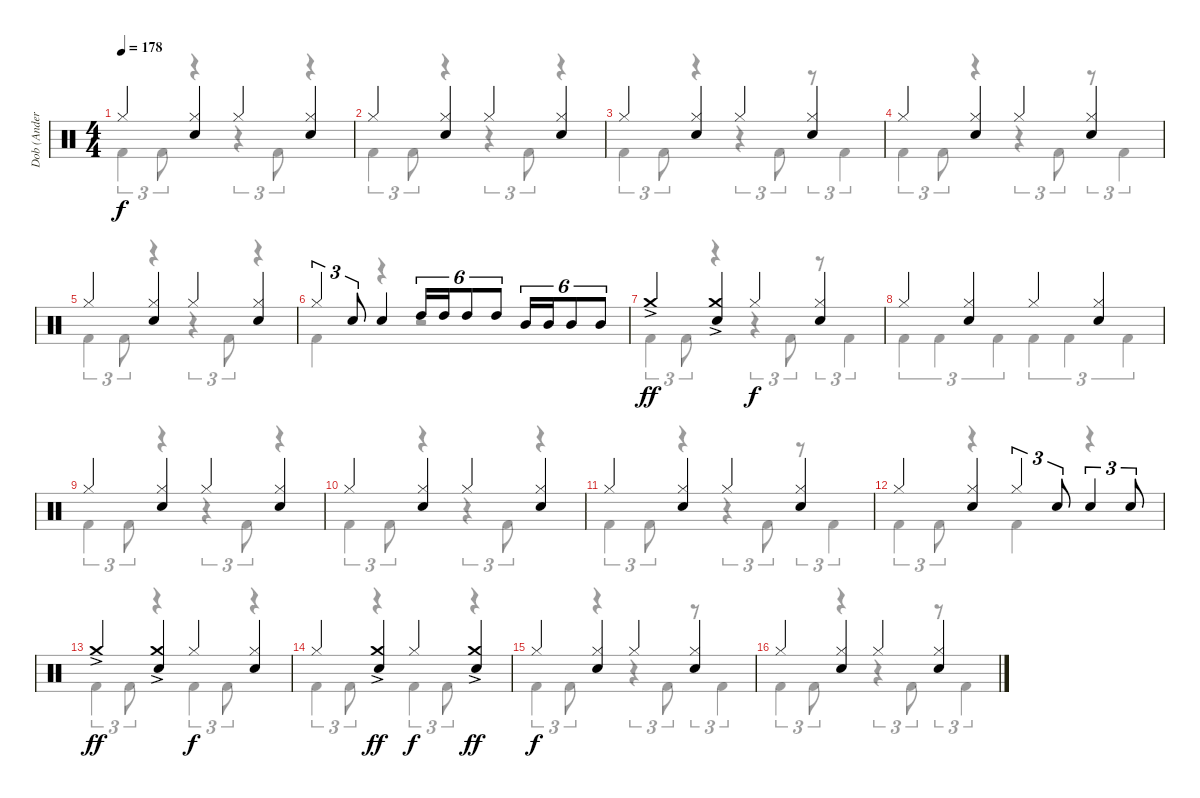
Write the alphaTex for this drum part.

\track ("Dob (Anders Johansson)" "Dob (Ander") {instrument percussion}
\staff {score}
\articulation defaults
\voice
\ts (4 4)
\tempo 178
\clef neutral
\ks c "Hi-Hat (closed)".4{dy f}
("Hi-Hat (closed)" "Electric Snare (hit)").4 "Hi-Hat (closed)".4 ("Hi-Hat (closed)" "Electric Snare (hit)").4 |
"Hi-Hat (closed)".4 ("Hi-Hat (closed)" "Electric Snare (hit)").4 "Hi-Hat (closed)".4 ("Hi-Hat (closed)" "Electric Snare (hit)").4 |
"Hi-Hat (closed)".4 ("Hi-Hat (closed)" "Electric Snare (hit)").4 "Hi-Hat (closed)".4 ("Hi-Hat (closed)" "Electric Snare (hit)").4 |
"Hi-Hat (closed)".4 ("Hi-Hat (closed)" "Electric Snare (hit)").4 "Hi-Hat (closed)".4 ("Hi-Hat (closed)" "Electric Snare (hit)").4 |
"Hi-Hat (closed)".4 ("Hi-Hat (closed)" "Electric Snare (hit)").4 "Hi-Hat (closed)".4 ("Hi-Hat (closed)" "Electric Snare (hit)").4 |
"Hi-Hat (closed)".4{tu (3 2)} "Electric Snare (hit)".8{tu (3 2)} "Electric Snare (hit)".4 "High Tom (hit)".16{tu (6 4)} "High Tom (hit)".16{tu (6 4)} "High Tom (hit)".8{tu (6 4)} "High Tom (hit)".8{tu (6 4)} "Mid Tom (hit)".16{tu (6 4)} "Mid Tom (hit)".16{tu (6 4)} "Mid Tom (hit)".8{tu (6 4)} "Mid Tom (hit)".8{tu (6 4)} |
"Crash medium (hit)"{ac}.4{dy ff} ("Crash medium (hit)"{ac} "Electric Snare (hit)").4 "Hi-Hat (closed)".4{dy f} ("Hi-Hat (closed)" "Electric Snare (hit)").4 |
"Hi-Hat (closed)".4 ("Hi-Hat (closed)" "Electric Snare (hit)").4 "Hi-Hat (closed)".4 ("Hi-Hat (closed)" "Electric Snare (hit)").4 |
"Hi-Hat (closed)".4 ("Hi-Hat (closed)" "Electric Snare (hit)").4 "Hi-Hat (closed)".4 ("Hi-Hat (closed)" "Electric Snare (hit)").4 |
"Hi-Hat (closed)".4 ("Hi-Hat (closed)" "Electric Snare (hit)").4 "Hi-Hat (closed)".4 ("Hi-Hat (closed)" "Electric Snare (hit)").4 |
"Hi-Hat (closed)".4 ("Hi-Hat (closed)" "Electric Snare (hit)").4 "Hi-Hat (closed)".4 ("Hi-Hat (closed)" "Electric Snare (hit)").4 |
"Hi-Hat (closed)".4 ("Hi-Hat (closed)" "Electric Snare (hit)").4 "Hi-Hat (closed)".4{tu (3 2)} "Electric Snare (hit)".8{tu (3 2)} "Electric Snare (hit)".4{tu (3 2)} "Electric Snare (hit)".8{tu (3 2)} |
"Crash medium (hit)"{ac}.4{dy ff} ("Crash medium (hit)"{ac} "Electric Snare (hit)").4 "Hi-Hat (closed)".4{dy f} ("Hi-Hat (closed)" "Electric Snare (hit)").4 |
"Hi-Hat (closed)".4 ("Crash medium (hit)"{ac} "Electric Snare (hit)").4{dy ff} "Hi-Hat (closed)".4{dy f} ("Crash medium (hit)"{ac} "Electric Snare (hit)").4{dy ff} |
"Hi-Hat (closed)".4{dy f} ("Hi-Hat (closed)" "Electric Snare (hit)").4 "Hi-Hat (closed)".4 ("Hi-Hat (closed)" "Electric Snare (hit)").4 |
"Hi-Hat (closed)".4 ("Hi-Hat (closed)" "Electric Snare (hit)").4 "Hi-Hat (closed)".4 ("Hi-Hat (closed)" "Electric Snare (hit)").4
\voice
\clef neutral
\ottava regular
\simile none
\ks c "Kick (hit) 2".4{tu (3 2) dy f} "Kick (hit) 2".8{tu (3 2)}
r.4 r.4{tu (3 2)} "Kick (hit) 2".8{tu (3 2)} r.4 |
"Kick (hit) 2".4{tu (3 2)} "Kick (hit) 2".8{tu (3 2)} r.4 r.4{tu (3 2)} "Kick (hit) 2".8{tu (3 2)} r.4 |
"Kick (hit) 2".4{tu (3 2)} "Kick (hit) 2".8{tu (3 2)} r.4 r.4{tu (3 2)} "Kick (hit) 2".8{tu (3 2)} r.8{tu (3 2)} "Kick (hit) 2".4{tu (3 2)} |
"Kick (hit) 2".4{tu (3 2)} "Kick (hit) 2".8{tu (3 2)} r.4 r.4{tu (3 2)} "Kick (hit) 2".8{tu (3 2)} r.8{tu (3 2)} "Kick (hit) 2".4{tu (3 2)} |
"Kick (hit) 2".4{tu (3 2)} "Kick (hit) 2".8{tu (3 2)} r.4 r.4{tu (3 2)} "Kick (hit) 2".8{tu (3 2)} r.4 |
"Kick (hit) 2".4 r.4 r.2 |
"Kick (hit) 2".4{tu (3 2)} "Kick (hit) 2".8{tu (3 2)} r.4 r.4{tu (3 2)} "Kick (hit) 2".8{tu (3 2)} r.8{tu (3 2)} "Kick (hit) 2".4{tu (3 2)} |
"Kick (hit) 2".4{tu (3 2)} "Kick (hit) 2".4{tu (3 2)} "Kick (hit) 2".4{tu (3 2)} "Kick (hit) 2".4{tu (3 2)} "Kick (hit) 2".4{tu (3 2)} "Kick (hit) 2".4{tu (3 2)} |
"Kick (hit) 2".4{tu (3 2)} "Kick (hit) 2".8{tu (3 2)} r.4 r.4{tu (3 2)} "Kick (hit) 2".8{tu (3 2)} r.4 |
"Kick (hit) 2".4{tu (3 2)} "Kick (hit) 2".8{tu (3 2)} r.4 r.4{tu (3 2)} "Kick (hit) 2".8{tu (3 2)} r.4 |
"Kick (hit) 2".4{tu (3 2)} "Kick (hit) 2".8{tu (3 2)} r.4 r.4{tu (3 2)} "Kick (hit) 2".8{tu (3 2)} r.8{tu (3 2)} "Kick (hit) 2".4{tu (3 2)} |
"Kick (hit) 2".4{tu (3 2)} "Kick (hit) 2".8{tu (3 2)} r.4 "Kick (hit) 2".4 r.4 |
"Kick (hit) 2".4{tu (3 2)} "Kick (hit) 2".8{tu (3 2)} r.4 "Kick (hit) 2".4{tu (3 2)} "Kick (hit) 2".8{tu (3 2)} r.4 |
"Kick (hit) 2".4{tu (3 2)} "Kick (hit) 2".8{tu (3 2)} r.4 "Kick (hit) 2".4{tu (3 2)} "Kick (hit) 2".8{tu (3 2)} r.4 |
"Kick (hit) 2".4{tu (3 2)} "Kick (hit) 2".8{tu (3 2)} r.4 r.4{tu (3 2)} "Kick (hit) 2".8{tu (3 2)} r.8{tu (3 2)} "Kick (hit) 2".4{tu (3 2)} |
"Kick (hit) 2".4{tu (3 2)} "Kick (hit) 2".8{tu (3 2)} r.4 r.4{tu (3 2)} "Kick (hit) 2".8{tu (3 2)} r.8{tu (3 2)} "Kick (hit) 2".4{tu (3 2)}
